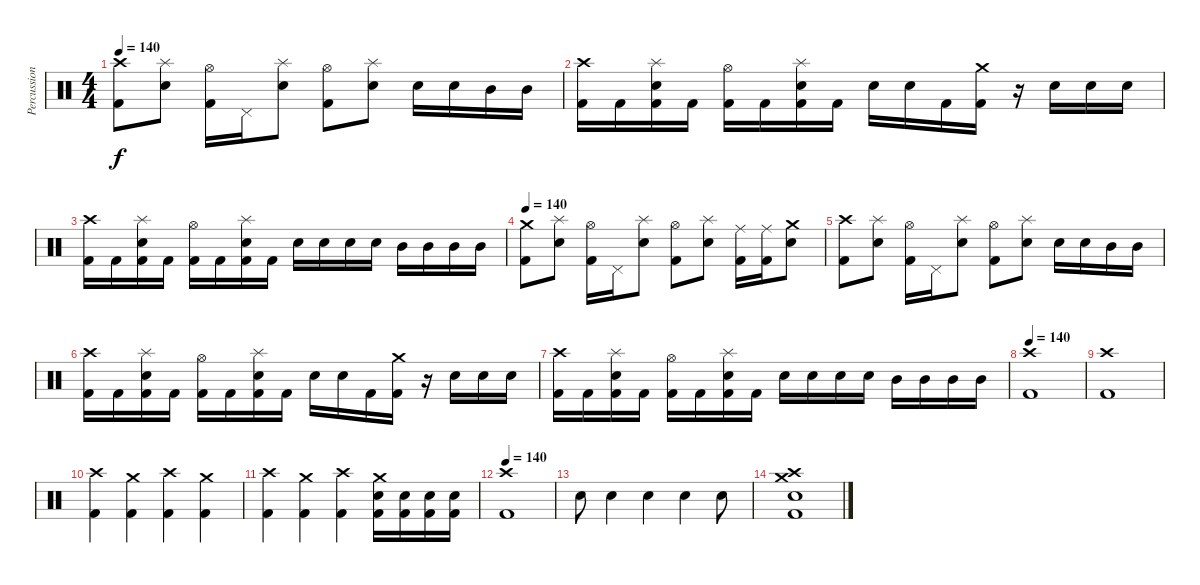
\track ("Percussion" "Percussion") {instrument percussion}
\staff {score}
\articulation defaults
\ts (4 4)
\tempo 140
\clef neutral
\ks c
("Crash high (hit)" "Kick (hit) 2").8{dy f} ("Splash (hit)" "Snare (hit) 2").8 ("Hi-Hat (open)" "Kick (hit) 2").16 "Pedal Hi-Hat (hit)".16 ("Splash (hit)" "Snare (hit) 2").8 ("Hi-Hat (open)" "Kick (hit) 2").8 ("Splash (hit)" "Snare (hit) 2").8 "Snare (hit) 2".16 "Snare (hit) 2".16 "Mid Tom (hit)".16 "Mid Tom (hit)".16 |
("Crash high (hit)" "Kick (hit) 2").16 "Kick (hit) 2".16 ("Splash (hit)" "Snare (hit) 2" "Kick (hit) 2").16 "Kick (hit) 2".16 ("Hi-Hat (open)" "Kick (hit) 2").16 "Kick (hit) 2".16 ("Splash (hit)" "Snare (hit) 2" "Kick (hit) 2").16 "Kick (hit) 2".16 "Snare (hit) 2".16 "Snare (hit) 2".16 "Kick (hit) 2".16 ("Crash medium (hit)" "Kick (hit) 2").16 r.16 "Snare (hit) 2".16 "Snare (hit) 2".16 "Snare (hit) 2".16 |
("Crash high (hit)" "Kick (hit) 2").16 "Kick (hit) 2".16 ("Splash (hit)" "Snare (hit) 2" "Kick (hit) 2").16 "Kick (hit) 2".16 ("Hi-Hat (open)" "Kick (hit) 2").16 "Kick (hit) 2".16 ("Splash (hit)" "Snare (hit) 2" "Kick (hit) 2").16 "Kick (hit) 2".16 "Snare (hit) 2".16 "Snare (hit) 2".16 "Snare (hit) 2".16 "Snare (hit) 2".16 "Mid Tom (hit)".16 "Mid Tom (hit)".16 "Mid Tom (hit)".16 "Mid Tom (hit)".16 |
\tempo 140
("Crash medium (hit)" "Kick (hit) 2").8 ("Splash (hit)" "Snare (hit) 2").8 ("Hi-Hat (open)" "Kick (hit) 2").16 "Pedal Hi-Hat (hit)".16 ("Splash (hit)" "Snare (hit) 2").8 ("Hi-Hat (open)" "Kick (hit) 2").8 ("Splash (hit)" "Snare (hit) 2").8 ("Ride (middle)" "Kick (hit) 2").16 ("Ride (middle)" "Kick (hit) 2").16 ("Crash medium (hit)" "Snare (hit) 2").8 |
("Crash high (hit)" "Kick (hit) 2").8 ("Splash (hit)" "Snare (hit) 2").8 ("Hi-Hat (open)" "Kick (hit) 2").16 "Pedal Hi-Hat (hit)".16 ("Splash (hit)" "Snare (hit) 2").8 ("Hi-Hat (open)" "Kick (hit) 2").8 ("Splash (hit)" "Snare (hit) 2").8 "Snare (hit) 2".16 "Snare (hit) 2".16 "Mid Tom (hit)".16 "Mid Tom (hit)".16 |
("Crash high (hit)" "Kick (hit) 2").16 "Kick (hit) 2".16 ("Splash (hit)" "Snare (hit) 2" "Kick (hit) 2").16 "Kick (hit) 2".16 ("Hi-Hat (open)" "Kick (hit) 2").16 "Kick (hit) 2".16 ("Splash (hit)" "Snare (hit) 2" "Kick (hit) 2").16 "Kick (hit) 2".16 "Snare (hit) 2".16 "Snare (hit) 2".16 "Kick (hit) 2".16 ("Crash medium (hit)" "Kick (hit) 2").16 r.16 "Snare (hit) 2".16 "Snare (hit) 2".16 "Snare (hit) 2".16 |
("Crash high (hit)" "Kick (hit) 2").16 "Kick (hit) 2".16 ("Splash (hit)" "Snare (hit) 2" "Kick (hit) 2").16 "Kick (hit) 2".16 ("Hi-Hat (open)" "Kick (hit) 2").16 "Kick (hit) 2".16 ("Splash (hit)" "Snare (hit) 2" "Kick (hit) 2").16 "Kick (hit) 2".16 "Snare (hit) 2".16 "Snare (hit) 2".16 "Snare (hit) 2".16 "Snare (hit) 2".16 "Mid Tom (hit)".16 "Mid Tom (hit)".16 "Mid Tom (hit)".16 "Mid Tom (hit)".16 |
\tempo 140
("Crash high (hit)" "Kick (hit) 2").1 |
("Crash high (hit)" "Kick (hit) 2").1 |
("Crash high (hit)" "Kick (hit) 2").4 ("Crash medium (hit)" "Kick (hit) 2").4 ("Crash high (hit)" "Kick (hit) 2").4 ("Crash medium (hit)" "Kick (hit) 2").4 |
("Crash high (hit)" "Kick (hit) 2").4 ("Crash medium (hit)" "Kick (hit) 2").4 ("Crash high (hit)" "Kick (hit) 2").4 ("Crash medium (hit)" "Snare (hit) 2" "Kick (hit) 2").16 ("Snare (hit) 2" "Kick (hit) 2").16 ("Snare (hit) 2" "Kick (hit) 2").16 ("Snare (hit) 2" "Kick (hit) 2").16 |
\tempo 140
("Crash high (hit)" "Kick (hit) 2").1 |
"Snare (hit) 2".8 "Snare (hit) 2".4 "Snare (hit) 2".4 "Snare (hit) 2".4 "Snare (hit) 2".8 |
("Crash high (hit)" "Crash medium (hit)" "Snare (hit) 2" "Kick (hit) 2").1
